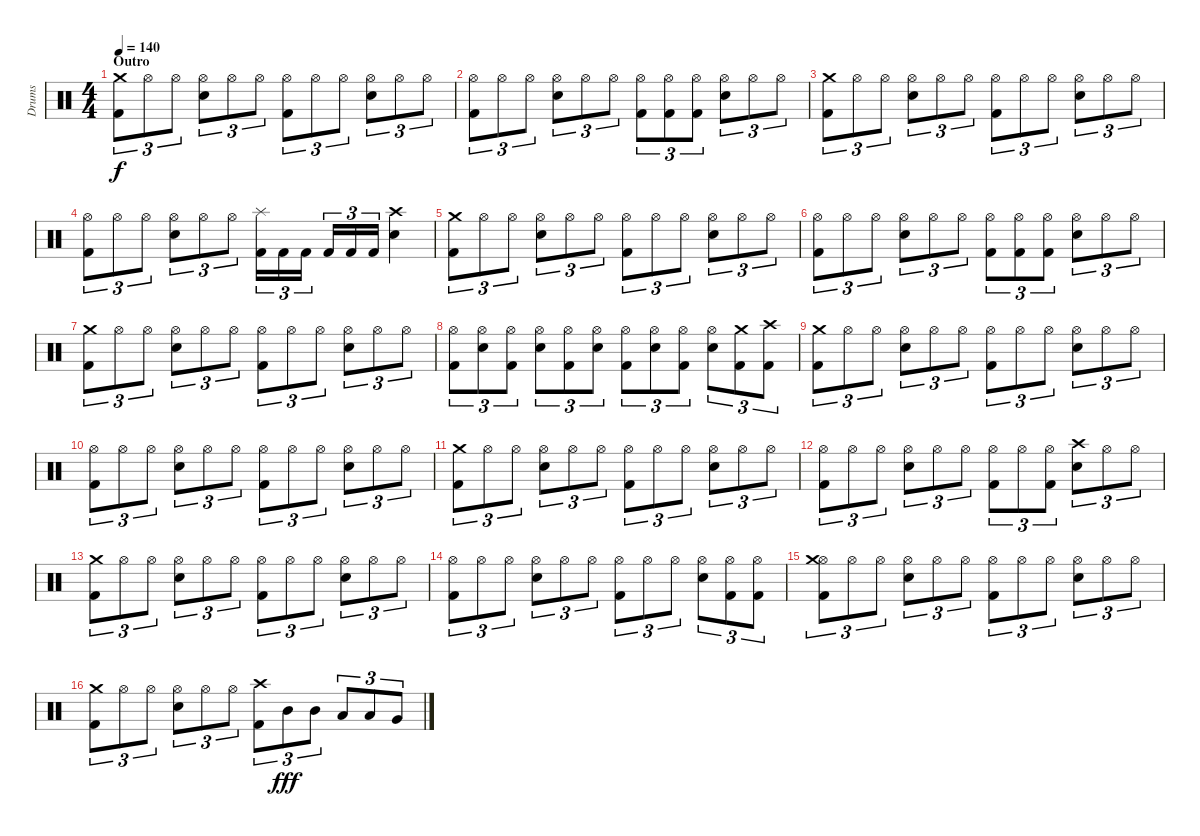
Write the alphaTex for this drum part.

\track ("Drums" "Drums") {instrument percussion}
\staff {score}
\articulation defaults
\ts (4 4)
\section ("" "Outro")
\tempo 140
\clef neutral
\ks c
("Kick (hit) 2" "Crash medium (hit)").8{tu (3 2) dy f} "Hi-Hat (open)".8{tu (3 2)} "Hi-Hat (open)".8{tu (3 2)} ("Electric Snare (hit)" "Hi-Hat (open)").8{tu (3 2)} "Hi-Hat (open)".8{tu (3 2)} "Hi-Hat (open)".8{tu (3 2)} ("Kick (hit) 2" "Hi-Hat (open)").8{tu (3 2)} "Hi-Hat (open)".8{tu (3 2)} "Hi-Hat (open)".8{tu (3 2)} ("Electric Snare (hit)" "Hi-Hat (open)").8{tu (3 2)} "Hi-Hat (open)".8{tu (3 2)} "Hi-Hat (open)".8{tu (3 2)} |
("Kick (hit) 2" "Hi-Hat (open)").8{tu (3 2)} "Hi-Hat (open)".8{tu (3 2)} "Hi-Hat (open)".8{tu (3 2)} ("Electric Snare (hit)" "Hi-Hat (open)").8{tu (3 2)} "Hi-Hat (open)".8{tu (3 2)} "Hi-Hat (open)".8{tu (3 2)} ("Kick (hit) 2" "Hi-Hat (open)").8{tu (3 2)} ("Kick (hit) 2" "Hi-Hat (open)").8{tu (3 2)} ("Kick (hit) 2" "Hi-Hat (open)").8{tu (3 2)} ("Electric Snare (hit)" "Hi-Hat (open)").8{tu (3 2)} "Hi-Hat (open)".8{tu (3 2)} "Hi-Hat (open)".8{tu (3 2)} |
("Kick (hit) 2" "Crash medium (hit)").8{tu (3 2)} "Hi-Hat (open)".8{tu (3 2)} "Hi-Hat (open)".8{tu (3 2)} ("Electric Snare (hit)" "Hi-Hat (open)").8{tu (3 2)} "Hi-Hat (open)".8{tu (3 2)} "Hi-Hat (open)".8{tu (3 2)} ("Kick (hit) 2" "Hi-Hat (open)").8{tu (3 2)} "Hi-Hat (open)".8{tu (3 2)} "Hi-Hat (open)".8{tu (3 2)} ("Electric Snare (hit)" "Hi-Hat (open)").8{tu (3 2)} "Hi-Hat (open)".8{tu (3 2)} "Hi-Hat (open)".8{tu (3 2)} |
("Kick (hit) 2" "Hi-Hat (open)").8{tu (3 2)} "Hi-Hat (open)".8{tu (3 2)} "Hi-Hat (open)".8{tu (3 2)} ("Electric Snare (hit)" "Hi-Hat (open)").8{tu (3 2)} "Hi-Hat (open)".8{tu (3 2)} "Hi-Hat (open)".8{tu (3 2)} ("Kick (hit) 2" "Splash (hit)").16{tu (3 2)} "Kick (hit) 2".16{tu (3 2)} "Kick (hit) 2".16{tu (3 2)} "Kick (hit) 2".16{tu (3 2)} "Kick (hit) 2".16{tu (3 2)} "Kick (hit) 2".16{tu (3 2)} ("Electric Snare (hit)" "Crash high (hit)").4 |
("Kick (hit) 2" "Crash medium (hit)").8{tu (3 2)} "Hi-Hat (open)".8{tu (3 2)} "Hi-Hat (open)".8{tu (3 2)} ("Electric Snare (hit)" "Hi-Hat (open)").8{tu (3 2)} "Hi-Hat (open)".8{tu (3 2)} "Hi-Hat (open)".8{tu (3 2)} ("Kick (hit) 2" "Hi-Hat (open)").8{tu (3 2)} "Hi-Hat (open)".8{tu (3 2)} "Hi-Hat (open)".8{tu (3 2)} ("Electric Snare (hit)" "Hi-Hat (open)").8{tu (3 2)} "Hi-Hat (open)".8{tu (3 2)} "Hi-Hat (open)".8{tu (3 2)} |
("Kick (hit) 2" "Hi-Hat (open)").8{tu (3 2)} "Hi-Hat (open)".8{tu (3 2)} "Hi-Hat (open)".8{tu (3 2)} ("Electric Snare (hit)" "Hi-Hat (open)").8{tu (3 2)} "Hi-Hat (open)".8{tu (3 2)} "Hi-Hat (open)".8{tu (3 2)} ("Kick (hit) 2" "Hi-Hat (open)").8{tu (3 2)} ("Kick (hit) 2" "Hi-Hat (open)").8{tu (3 2)} ("Kick (hit) 2" "Hi-Hat (open)").8{tu (3 2)} ("Electric Snare (hit)" "Hi-Hat (open)").8{tu (3 2)} "Hi-Hat (open)".8{tu (3 2)} "Hi-Hat (open)".8{tu (3 2)} |
("Kick (hit) 2" "Crash medium (hit)").8{tu (3 2)} "Hi-Hat (open)".8{tu (3 2)} "Hi-Hat (open)".8{tu (3 2)} ("Electric Snare (hit)" "Hi-Hat (open)").8{tu (3 2)} "Hi-Hat (open)".8{tu (3 2)} "Hi-Hat (open)".8{tu (3 2)} ("Kick (hit) 2" "Hi-Hat (open)").8{tu (3 2)} "Hi-Hat (open)".8{tu (3 2)} "Hi-Hat (open)".8{tu (3 2)} ("Electric Snare (hit)" "Hi-Hat (open)").8{tu (3 2)} "Hi-Hat (open)".8{tu (3 2)} "Hi-Hat (open)".8{tu (3 2)} |
("Kick (hit) 2" "Hi-Hat (open)").8{tu (3 2)} ("Electric Snare (hit)" "Hi-Hat (open)").8{tu (3 2)} ("Kick (hit) 2" "Hi-Hat (open)").8{tu (3 2)} ("Electric Snare (hit)" "Hi-Hat (open)").8{tu (3 2)} ("Kick (hit) 2" "Hi-Hat (open)").8{tu (3 2)} ("Electric Snare (hit)" "Hi-Hat (open)").8{tu (3 2)} ("Kick (hit) 2" "Hi-Hat (open)").8{tu (3 2)} ("Electric Snare (hit)" "Hi-Hat (open)").8{tu (3 2)} ("Kick (hit) 2" "Hi-Hat (open)").8{tu (3 2)} ("Electric Snare (hit)" "Hi-Hat (open)").8{tu (3 2)} ("Kick (hit) 2" "Crash medium (hit)").8{tu (3 2)} ("Kick (hit) 2" "Crash high (hit)").8{tu (3 2)} |
("Kick (hit) 2" "Crash medium (hit)").8{tu (3 2)} "Hi-Hat (open)".8{tu (3 2)} "Hi-Hat (open)".8{tu (3 2)} ("Electric Snare (hit)" "Hi-Hat (open)").8{tu (3 2)} "Hi-Hat (open)".8{tu (3 2)} "Hi-Hat (open)".8{tu (3 2)} ("Kick (hit) 2" "Hi-Hat (open)").8{tu (3 2)} "Hi-Hat (open)".8{tu (3 2)} "Hi-Hat (open)".8{tu (3 2)} ("Electric Snare (hit)" "Hi-Hat (open)").8{tu (3 2)} "Hi-Hat (open)".8{tu (3 2)} "Hi-Hat (open)".8{tu (3 2)} |
("Kick (hit) 2" "Hi-Hat (open)").8{tu (3 2)} "Hi-Hat (open)".8{tu (3 2)} "Hi-Hat (open)".8{tu (3 2)} ("Electric Snare (hit)" "Hi-Hat (open)").8{tu (3 2)} "Hi-Hat (open)".8{tu (3 2)} "Hi-Hat (open)".8{tu (3 2)} ("Kick (hit) 2" "Hi-Hat (open)").8{tu (3 2)} "Hi-Hat (open)".8{tu (3 2)} "Hi-Hat (open)".8{tu (3 2)} ("Electric Snare (hit)" "Hi-Hat (open)").8{tu (3 2)} "Hi-Hat (open)".8{tu (3 2)} "Hi-Hat (open)".8{tu (3 2)} |
("Kick (hit) 2" "Crash medium (hit)").8{tu (3 2)} "Hi-Hat (open)".8{tu (3 2)} "Hi-Hat (open)".8{tu (3 2)} ("Electric Snare (hit)" "Hi-Hat (open)").8{tu (3 2)} "Hi-Hat (open)".8{tu (3 2)} "Hi-Hat (open)".8{tu (3 2)} ("Kick (hit) 2" "Hi-Hat (open)").8{tu (3 2)} "Hi-Hat (open)".8{tu (3 2)} "Hi-Hat (open)".8{tu (3 2)} ("Electric Snare (hit)" "Hi-Hat (open)").8{tu (3 2)} "Hi-Hat (open)".8{tu (3 2)} "Hi-Hat (open)".8{tu (3 2)} |
("Kick (hit) 2" "Hi-Hat (open)").8{tu (3 2)} "Hi-Hat (open)".8{tu (3 2)} "Hi-Hat (open)".8{tu (3 2)} ("Electric Snare (hit)" "Hi-Hat (open)").8{tu (3 2)} "Hi-Hat (open)".8{tu (3 2)} "Hi-Hat (open)".8{tu (3 2)} ("Kick (hit) 2" "Hi-Hat (open)").8{tu (3 2)} "Hi-Hat (open)".8{tu (3 2)} ("Kick (hit) 2" "Hi-Hat (open)").8{tu (3 2)} ("Electric Snare (hit)" "Crash high (hit)").8{tu (3 2)} "Hi-Hat (open)".8{tu (3 2)} "Hi-Hat (open)".8{tu (3 2)} |
("Kick (hit) 2" "Crash medium (hit)").8{tu (3 2)} "Hi-Hat (open)".8{tu (3 2)} "Hi-Hat (open)".8{tu (3 2)} ("Electric Snare (hit)" "Hi-Hat (open)").8{tu (3 2)} "Hi-Hat (open)".8{tu (3 2)} "Hi-Hat (open)".8{tu (3 2)} ("Kick (hit) 2" "Hi-Hat (open)").8{tu (3 2)} "Hi-Hat (open)".8{tu (3 2)} "Hi-Hat (open)".8{tu (3 2)} ("Electric Snare (hit)" "Hi-Hat (open)").8{tu (3 2)} "Hi-Hat (open)".8{tu (3 2)} "Hi-Hat (open)".8{tu (3 2)} |
("Kick (hit) 2" "Hi-Hat (open)").8{tu (3 2)} "Hi-Hat (open)".8{tu (3 2)} "Hi-Hat (open)".8{tu (3 2)} ("Electric Snare (hit)" "Hi-Hat (open)").8{tu (3 2)} "Hi-Hat (open)".8{tu (3 2)} "Hi-Hat (open)".8{tu (3 2)} ("Kick (hit) 2" "Hi-Hat (open)").8{tu (3 2)} "Hi-Hat (open)".8{tu (3 2)} "Hi-Hat (open)".8{tu (3 2)} ("Electric Snare (hit)" "Hi-Hat (open)").8{tu (3 2)} ("Kick (hit) 2" "Hi-Hat (open)").8{tu (3 2)} ("Kick (hit) 2" "Hi-Hat (open)").8{tu (3 2)} |
("Kick (hit) 2" "Hi-Hat (open)" "Crash medium (hit)").8{tu (3 2)} "Hi-Hat (open)".8{tu (3 2)} "Hi-Hat (open)".8{tu (3 2)} ("Electric Snare (hit)" "Hi-Hat (open)").8{tu (3 2)} "Hi-Hat (open)".8{tu (3 2)} "Hi-Hat (open)".8{tu (3 2)} ("Kick (hit) 2" "Hi-Hat (open)").8{tu (3 2)} "Hi-Hat (open)".8{tu (3 2)} "Hi-Hat (open)".8{tu (3 2)} ("Electric Snare (hit)" "Hi-Hat (open)").8{tu (3 2)} "Hi-Hat (open)".8{tu (3 2)} "Hi-Hat (open)".8{tu (3 2)} |
("Kick (hit) 2" "Crash medium (hit)").8{tu (3 2)} "Hi-Hat (open)".8{tu (3 2)} "Hi-Hat (open)".8{tu (3 2)} ("Electric Snare (hit)" "Hi-Hat (open)").8{tu (3 2)} "Hi-Hat (open)".8{tu (3 2)} "Hi-Hat (open)".8{tu (3 2)} ("Kick (hit) 2" "Crash high (hit)").8{tu (3 2)} "Mid Tom (hit)".8{tu (3 2) dy fff} "Mid Tom (hit)".8{tu (3 2)} "Low Tom (hit)".8{tu (3 2)} "Low Tom (hit)".8{tu (3 2)} "Very Low Tom (hit)".8{tu (3 2)}
